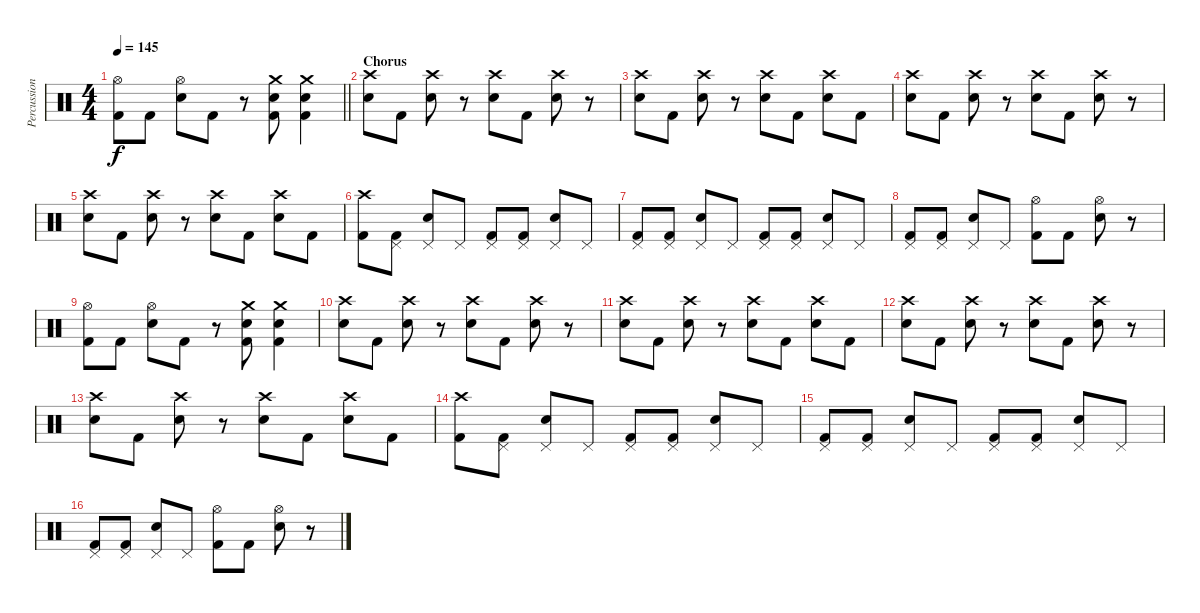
\track ("Percussion" "Percussion") {instrument percussion}
\staff {score}
\articulation defaults
\ts (4 4)
\tempo 145
\clef neutral
\barLineRight lightlight
\ks c
("Hi-Hat (open)" "Kick (hit) 2").8{dy f} "Kick (hit) 2".8 ("Hi-Hat (open)" "Snare (hit) 2").8 "Kick (hit) 2".8 r.8 ("Crash medium (hit)" "Snare (hit) 2" "Kick (hit) 2").8 ("Crash medium (hit)" "Snare (hit) 2" "Kick (hit) 2").4 |
\section ("" "Chorus")
("Crash high (hit)" "Snare (hit) 2").8 "Kick (hit) 2".8 ("Crash high (hit)" "Snare (hit) 2").8 r.8 ("Crash high (hit)" "Snare (hit) 2").8 "Kick (hit) 2".8 ("Crash high (hit)" "Snare (hit) 2").8 r.8 |
("Crash high (hit)" "Snare (hit) 2").8 "Kick (hit) 2".8 ("Crash high (hit)" "Snare (hit) 2").8 r.8 ("Crash high (hit)" "Snare (hit) 2").8 "Kick (hit) 2".8 ("Crash high (hit)" "Snare (hit) 2").8 "Kick (hit) 2".8 |
("Crash high (hit)" "Snare (hit) 2").8 "Kick (hit) 2".8 ("Crash high (hit)" "Snare (hit) 2").8 r.8 ("Crash high (hit)" "Snare (hit) 2").8 "Kick (hit) 2".8 ("Crash high (hit)" "Snare (hit) 2").8 r.8 |
("Crash high (hit)" "Snare (hit) 2").8 "Kick (hit) 2".8 ("Crash high (hit)" "Snare (hit) 2").8 r.8 ("Crash high (hit)" "Snare (hit) 2").8 "Kick (hit) 2".8 ("Crash high (hit)" "Snare (hit) 2").8 "Kick (hit) 2".8 |
("Crash high (hit)" "Kick (hit) 2").8 ("Pedal Hi-Hat (hit)" "Kick (hit) 2").8 ("Pedal Hi-Hat (hit)" "Snare (hit) 2").8 "Pedal Hi-Hat (hit)".8 ("Pedal Hi-Hat (hit)" "Kick (hit) 2").8 ("Pedal Hi-Hat (hit)" "Kick (hit) 2").8 ("Pedal Hi-Hat (hit)" "Snare (hit) 2").8 "Pedal Hi-Hat (hit)".8 |
("Pedal Hi-Hat (hit)" "Kick (hit) 2").8 ("Pedal Hi-Hat (hit)" "Kick (hit) 2").8 ("Pedal Hi-Hat (hit)" "Snare (hit) 2").8 "Pedal Hi-Hat (hit)".8 ("Pedal Hi-Hat (hit)" "Kick (hit) 2").8 ("Pedal Hi-Hat (hit)" "Kick (hit) 2").8 ("Pedal Hi-Hat (hit)" "Snare (hit) 2").8 "Pedal Hi-Hat (hit)".8 |
("Pedal Hi-Hat (hit)" "Kick (hit) 2").8 ("Pedal Hi-Hat (hit)" "Kick (hit) 2").8 ("Pedal Hi-Hat (hit)" "Snare (hit) 2").8 "Pedal Hi-Hat (hit)".8 ("Hi-Hat (open)" "Kick (hit) 2").8 "Kick (hit) 2".8 ("Hi-Hat (open)" "Snare (hit) 2").8 r.8 |
("Hi-Hat (open)" "Kick (hit) 2").8 "Kick (hit) 2".8 ("Hi-Hat (open)" "Snare (hit) 2").8 "Kick (hit) 2".8 r.8 ("Crash medium (hit)" "Snare (hit) 2" "Kick (hit) 2").8 ("Crash medium (hit)" "Snare (hit) 2" "Kick (hit) 2").4 |
("Crash high (hit)" "Snare (hit) 2").8 "Kick (hit) 2".8 ("Crash high (hit)" "Snare (hit) 2").8 r.8 ("Crash high (hit)" "Snare (hit) 2").8 "Kick (hit) 2".8 ("Crash high (hit)" "Snare (hit) 2").8 r.8 |
("Crash high (hit)" "Snare (hit) 2").8 "Kick (hit) 2".8 ("Crash high (hit)" "Snare (hit) 2").8 r.8 ("Crash high (hit)" "Snare (hit) 2").8 "Kick (hit) 2".8 ("Crash high (hit)" "Snare (hit) 2").8 "Kick (hit) 2".8 |
("Crash high (hit)" "Snare (hit) 2").8 "Kick (hit) 2".8 ("Crash high (hit)" "Snare (hit) 2").8 r.8 ("Crash high (hit)" "Snare (hit) 2").8 "Kick (hit) 2".8 ("Crash high (hit)" "Snare (hit) 2").8 r.8 |
("Crash high (hit)" "Snare (hit) 2").8 "Kick (hit) 2".8 ("Crash high (hit)" "Snare (hit) 2").8 r.8 ("Crash high (hit)" "Snare (hit) 2").8 "Kick (hit) 2".8 ("Crash high (hit)" "Snare (hit) 2").8 "Kick (hit) 2".8 |
("Crash high (hit)" "Kick (hit) 2").8 ("Pedal Hi-Hat (hit)" "Kick (hit) 2").8 ("Pedal Hi-Hat (hit)" "Snare (hit) 2").8 "Pedal Hi-Hat (hit)".8 ("Pedal Hi-Hat (hit)" "Kick (hit) 2").8 ("Pedal Hi-Hat (hit)" "Kick (hit) 2").8 ("Pedal Hi-Hat (hit)" "Snare (hit) 2").8 "Pedal Hi-Hat (hit)".8 |
("Pedal Hi-Hat (hit)" "Kick (hit) 2").8 ("Pedal Hi-Hat (hit)" "Kick (hit) 2").8 ("Pedal Hi-Hat (hit)" "Snare (hit) 2").8 "Pedal Hi-Hat (hit)".8 ("Pedal Hi-Hat (hit)" "Kick (hit) 2").8 ("Pedal Hi-Hat (hit)" "Kick (hit) 2").8 ("Pedal Hi-Hat (hit)" "Snare (hit) 2").8 "Pedal Hi-Hat (hit)".8 |
("Pedal Hi-Hat (hit)" "Kick (hit) 2").8 ("Pedal Hi-Hat (hit)" "Kick (hit) 2").8 ("Pedal Hi-Hat (hit)" "Snare (hit) 2").8 "Pedal Hi-Hat (hit)".8 ("Hi-Hat (open)" "Kick (hit) 2").8 "Kick (hit) 2".8 ("Hi-Hat (open)" "Snare (hit) 2").8 r.8
